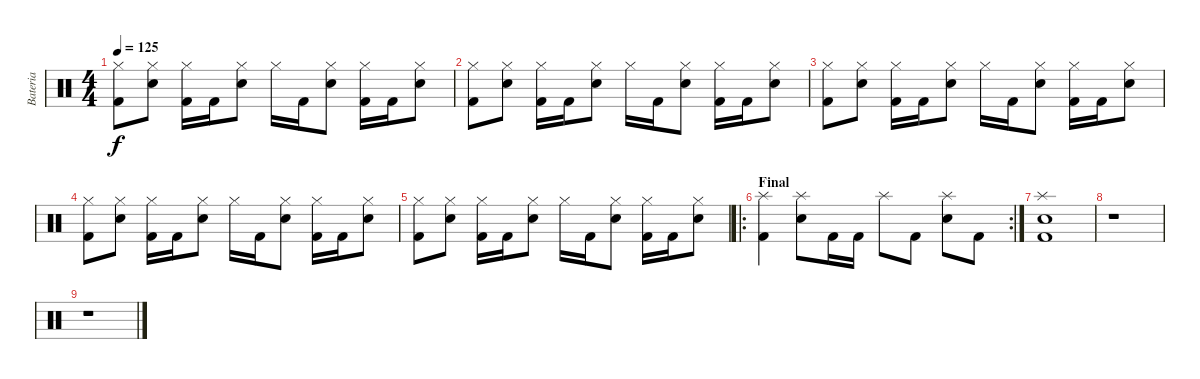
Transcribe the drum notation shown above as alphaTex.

\track ("Bateria" "Bateria") {instrument percussion}
\staff {score}
\articulation defaults
\ts (4 4)
\tempo 125
\clef neutral
\ks c
("Hi-Hat (closed)" "Kick (hit) 2").8{dy f} ("Hi-Hat (closed)" "Snare (hit) 2").8 ("Hi-Hat (closed)" "Kick (hit) 2").16 "Kick (hit) 2".16 ("Hi-Hat (closed)" "Snare (hit) 2").8 "Hi-Hat (closed)".16 "Kick (hit) 2".16 ("Hi-Hat (closed)" "Snare (hit) 2").8 ("Hi-Hat (closed)" "Kick (hit) 2").16 "Kick (hit) 2".16 ("Hi-Hat (closed)" "Snare (hit) 2").8 |
("Hi-Hat (closed)" "Kick (hit) 2").8 ("Hi-Hat (closed)" "Snare (hit) 2").8 ("Hi-Hat (closed)" "Kick (hit) 2").16 "Kick (hit) 2".16 ("Hi-Hat (closed)" "Snare (hit) 2").8 "Hi-Hat (closed)".16 "Kick (hit) 2".16 ("Hi-Hat (closed)" "Snare (hit) 2").8 ("Hi-Hat (closed)" "Kick (hit) 2").16 "Kick (hit) 2".16 ("Hi-Hat (closed)" "Snare (hit) 2").8 |
("Hi-Hat (closed)" "Kick (hit) 2").8 ("Hi-Hat (closed)" "Snare (hit) 2").8 ("Hi-Hat (closed)" "Kick (hit) 2").16 "Kick (hit) 2".16 ("Hi-Hat (closed)" "Snare (hit) 2").8 "Hi-Hat (closed)".16 "Kick (hit) 2".16 ("Hi-Hat (closed)" "Snare (hit) 2").8 ("Hi-Hat (closed)" "Kick (hit) 2").16 "Kick (hit) 2".16 ("Hi-Hat (closed)" "Snare (hit) 2").8 |
("Hi-Hat (closed)" "Kick (hit) 2").8 ("Hi-Hat (closed)" "Snare (hit) 2").8 ("Hi-Hat (closed)" "Kick (hit) 2").16 "Kick (hit) 2".16 ("Hi-Hat (closed)" "Snare (hit) 2").8 "Hi-Hat (closed)".16 "Kick (hit) 2".16 ("Hi-Hat (closed)" "Snare (hit) 2").8 ("Hi-Hat (closed)" "Kick (hit) 2").16 "Kick (hit) 2".16 ("Hi-Hat (closed)" "Snare (hit) 2").8 |
("Hi-Hat (closed)" "Kick (hit) 2").8 ("Hi-Hat (closed)" "Snare (hit) 2").8 ("Hi-Hat (closed)" "Kick (hit) 2").16 "Kick (hit) 2".16 ("Hi-Hat (closed)" "Snare (hit) 2").8 "Hi-Hat (closed)".16 "Kick (hit) 2".16 ("Hi-Hat (closed)" "Snare (hit) 2").8 ("Hi-Hat (closed)" "Kick (hit) 2").16 "Kick (hit) 2".16 ("Hi-Hat (closed)" "Snare (hit) 2").8 |
\ro
\rc 2
\section ("" "Final")
("Splash (hit)" "Kick (hit) 2").4 ("Splash (hit)" "Snare (hit) 2").8 "Kick (hit) 2".16 "Kick (hit) 2".16 "Splash (hit)".8 "Kick (hit) 2".8 ("Splash (hit)" "Snare (hit) 2").8 "Kick (hit) 2".8 |
("Splash (hit)" "Snare (hit) 2" "Kick (hit) 2").1 |
r.1 |
r.1
